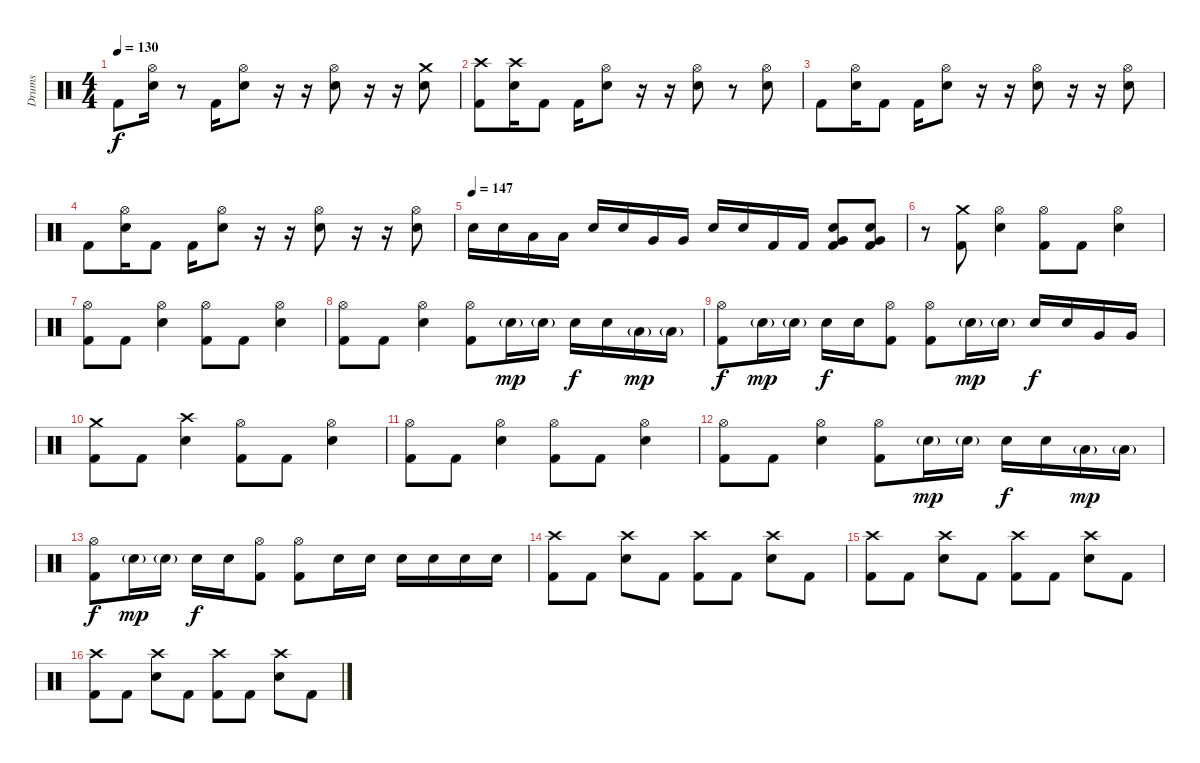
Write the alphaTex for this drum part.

\track ("Drums" "Drums") {instrument percussion}
\staff {score}
\articulation defaults
\ts (4 4)
\tempo 130
\clef neutral
\ks c "Kick (hit) 2".8{dy f}
("Hi-Hat (open)" "Electric Snare (hit)").16 r.8 "Kick (hit) 2".16 ("Hi-Hat (open)" "Electric Snare (hit)").8 r.16 r.16 ("Hi-Hat (open)" "Electric Snare (hit)").8 r.16 r.16 ("Crash medium (hit)" "Electric Snare (hit)").8 |
("Crash high (hit)" "Kick (hit) 2").8 ("Crash high (hit)" "Electric Snare (hit)").16 "Kick (hit) 2".8 "Kick (hit) 2".16 ("Hi-Hat (open)" "Electric Snare (hit)").8 r.16 r.16 ("Hi-Hat (open)" "Electric Snare (hit)").8 r.8 ("Hi-Hat (open)" "Electric Snare (hit)").8 |
"Kick (hit) 2".8 ("Hi-Hat (open)" "Electric Snare (hit)").16 "Kick (hit) 2".8 "Kick (hit) 2".16 ("Hi-Hat (open)" "Electric Snare (hit)").8 r.16 r.16 ("Hi-Hat (open)" "Electric Snare (hit)").8 r.16 r.16 ("Hi-Hat (open)" "Electric Snare (hit)").8 |
"Kick (hit) 2".8 ("Hi-Hat (open)" "Electric Snare (hit)").16 "Kick (hit) 2".8 "Kick (hit) 2".16 ("Hi-Hat (open)" "Electric Snare (hit)").8 r.16 r.16 ("Hi-Hat (open)" "Electric Snare (hit)").8 r.16 r.16 ("Hi-Hat (open)" "Electric Snare (hit)").8 |
\tempo (147)
"Electric Snare (hit)".16 "Electric Snare (hit)".16 "Low Tom (hit)".16 "Low Tom (hit)".16 "Electric Snare (hit)".16 "Electric Snare (hit)".16 "Very Low Tom (hit)".16 "Very Low Tom (hit)".16 "Electric Snare (hit)".16 "Electric Snare (hit)".16 "Kick (hit) 2".16 "Kick (hit) 2".16 ("Very Low Tom (hit)" "Electric Snare (hit)" "Kick (hit) 2").8 ("Very Low Tom (hit)" "Electric Snare (hit)" "Kick (hit) 2").8 |
r.8 ("Crash medium (hit)" "Kick (hit) 2").8 ("Hi-Hat (open)" "Electric Snare (hit)").4 ("Hi-Hat (open)" "Kick (hit) 2").8 "Kick (hit) 2".8 ("Hi-Hat (open)" "Electric Snare (hit)").4 |
("Hi-Hat (open)" "Kick (hit) 2").8 "Kick (hit) 2".8 ("Hi-Hat (open)" "Electric Snare (hit)").4 ("Hi-Hat (open)" "Kick (hit) 2").8 "Kick (hit) 2".8 ("Hi-Hat (open)" "Electric Snare (hit)").4 |
("Hi-Hat (open)" "Kick (hit) 2").8 "Kick (hit) 2".8 ("Hi-Hat (open)" "Electric Snare (hit)").4 ("Hi-Hat (open)" "Kick (hit) 2").8 "Electric Snare (hit)"{g}.16{dy mp} "Electric Snare (hit)"{g}.16 "Electric Snare (hit)".16{dy f} "Electric Snare (hit)".16 "Low Tom (hit)"{g}.16{dy mp} "Low Tom (hit)"{g}.16 |
("Hi-Hat (open)" "Kick (hit) 2").8{dy f} "Electric Snare (hit)"{g}.16{dy mp} "Electric Snare (hit)"{g}.16 "Electric Snare (hit)".16{dy f} "Electric Snare (hit)".16 ("Hi-Hat (open)" "Kick (hit) 2").8 ("Hi-Hat (open)" "Kick (hit) 2").8 "Electric Snare (hit)"{g}.16{dy mp} "Electric Snare (hit)"{g}.16 "Electric Snare (hit)".16{dy f} "Electric Snare (hit)".16 "Very Low Tom (hit)".16 "Very Low Tom (hit)".16 |
("Crash medium (hit)" "Kick (hit) 2").8 "Kick (hit) 2".8 ("Crash high (hit)" "Electric Snare (hit)").4 ("Hi-Hat (open)" "Kick (hit) 2").8 "Kick (hit) 2".8 ("Hi-Hat (open)" "Electric Snare (hit)").4 |
("Hi-Hat (open)" "Kick (hit) 2").8 "Kick (hit) 2".8 ("Hi-Hat (open)" "Electric Snare (hit)").4 ("Hi-Hat (open)" "Kick (hit) 2").8 "Kick (hit) 2".8 ("Hi-Hat (open)" "Electric Snare (hit)").4 |
("Hi-Hat (open)" "Kick (hit) 2").8 "Kick (hit) 2".8 ("Hi-Hat (open)" "Electric Snare (hit)").4 ("Hi-Hat (open)" "Kick (hit) 2").8 "Electric Snare (hit)"{g}.16{dy mp} "Electric Snare (hit)"{g}.16 "Electric Snare (hit)".16{dy f} "Electric Snare (hit)".16 "Low Tom (hit)"{g}.16{dy mp} "Low Tom (hit)"{g}.16 |
("Hi-Hat (open)" "Kick (hit) 2").8{dy f} "Electric Snare (hit)"{g}.16{dy mp} "Electric Snare (hit)"{g}.16 "Electric Snare (hit)".16{dy f} "Electric Snare (hit)".16 ("Hi-Hat (open)" "Kick (hit) 2").8 ("Hi-Hat (open)" "Kick (hit) 2").8 "Electric Snare (hit)".16 "Electric Snare (hit)".16 "Electric Snare (hit)".16 "Electric Snare (hit)".16 "Electric Snare (hit)".16 "Electric Snare (hit)".16 |
("Crash high (hit)" "Kick (hit) 2").8 "Kick (hit) 2".8 ("Crash high (hit)" "Electric Snare (hit)").8 "Kick (hit) 2".8 ("Crash high (hit)" "Kick (hit) 2").8 "Kick (hit) 2".8 ("Crash high (hit)" "Electric Snare (hit)").8 "Kick (hit) 2".8 |
("Crash high (hit)" "Kick (hit) 2").8 "Kick (hit) 2".8 ("Crash high (hit)" "Electric Snare (hit)").8 "Kick (hit) 2".8 ("Crash high (hit)" "Kick (hit) 2").8 "Kick (hit) 2".8 ("Crash high (hit)" "Electric Snare (hit)").8 "Kick (hit) 2".8 |
("Crash high (hit)" "Kick (hit) 2").8 "Kick (hit) 2".8 ("Crash high (hit)" "Electric Snare (hit)").8 "Kick (hit) 2".8 ("Crash high (hit)" "Kick (hit) 2").8 "Kick (hit) 2".8 ("Crash high (hit)" "Electric Snare (hit)").8 "Kick (hit) 2".8
